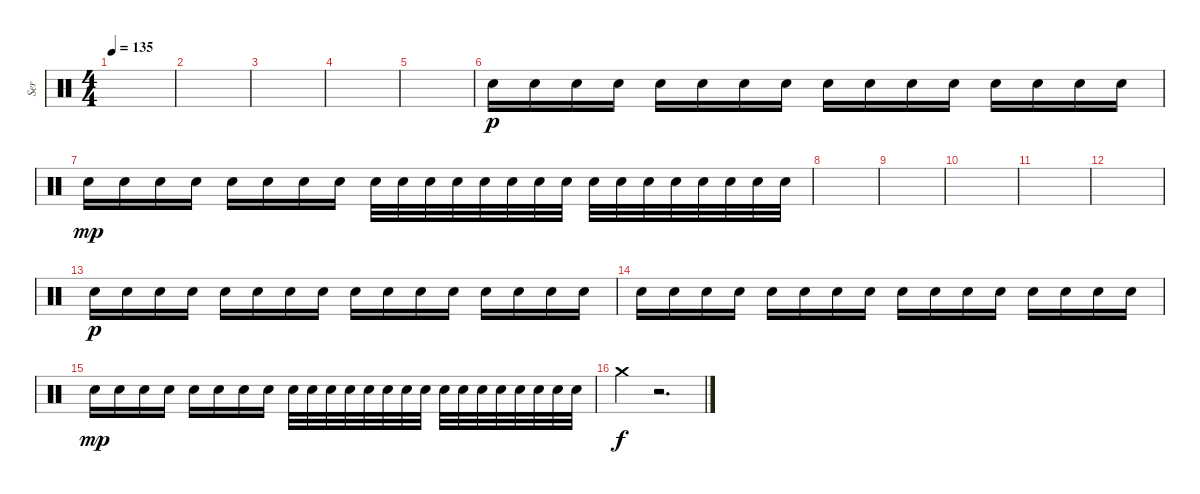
\track ("Ser" "Ser") {instrument percussion}
\staff {score}
\articulation defaults
\ts (4 4)
\tempo 135
\clef neutral
\ks c
|
|
|
|
|
"Electric Snare (hit)".16{dy p} "Electric Snare (hit)".16 "Electric Snare (hit)".16 "Electric Snare (hit)".16 "Electric Snare (hit)".16 "Electric Snare (hit)".16 "Electric Snare (hit)".16 "Electric Snare (hit)".16 "Electric Snare (hit)".16 "Electric Snare (hit)".16 "Electric Snare (hit)".16 "Electric Snare (hit)".16 "Electric Snare (hit)".16 "Electric Snare (hit)".16 "Electric Snare (hit)".16 "Electric Snare (hit)".16 |
"Electric Snare (hit)".16{dy mp} "Electric Snare (hit)".16 "Electric Snare (hit)".16 "Electric Snare (hit)".16 "Electric Snare (hit)".16 "Electric Snare (hit)".16 "Electric Snare (hit)".16 "Electric Snare (hit)".16 "Electric Snare (hit)".32 "Electric Snare (hit)".32 "Electric Snare (hit)".32 "Electric Snare (hit)".32 "Electric Snare (hit)".32 "Electric Snare (hit)".32 "Electric Snare (hit)".32 "Electric Snare (hit)".32 "Electric Snare (hit)".32 "Electric Snare (hit)".32 "Electric Snare (hit)".32 "Electric Snare (hit)".32 "Electric Snare (hit)".32 "Electric Snare (hit)".32 "Electric Snare (hit)".32 "Electric Snare (hit)".32 |
|
|
|
|
|
"Electric Snare (hit)".16{dy p} "Electric Snare (hit)".16 "Electric Snare (hit)".16 "Electric Snare (hit)".16 "Electric Snare (hit)".16 "Electric Snare (hit)".16 "Electric Snare (hit)".16 "Electric Snare (hit)".16 "Electric Snare (hit)".16 "Electric Snare (hit)".16 "Electric Snare (hit)".16 "Electric Snare (hit)".16 "Electric Snare (hit)".16 "Electric Snare (hit)".16 "Electric Snare (hit)".16 "Electric Snare (hit)".16 |
"Electric Snare (hit)".16 "Electric Snare (hit)".16 "Electric Snare (hit)".16 "Electric Snare (hit)".16 "Electric Snare (hit)".16 "Electric Snare (hit)".16 "Electric Snare (hit)".16 "Electric Snare (hit)".16 "Electric Snare (hit)".16 "Electric Snare (hit)".16 "Electric Snare (hit)".16 "Electric Snare (hit)".16 "Electric Snare (hit)".16 "Electric Snare (hit)".16 "Electric Snare (hit)".16 "Electric Snare (hit)".16 |
"Electric Snare (hit)".16{dy mp} "Electric Snare (hit)".16 "Electric Snare (hit)".16 "Electric Snare (hit)".16 "Electric Snare (hit)".16 "Electric Snare (hit)".16 "Electric Snare (hit)".16 "Electric Snare (hit)".16 "Electric Snare (hit)".32 "Electric Snare (hit)".32 "Electric Snare (hit)".32 "Electric Snare (hit)".32 "Electric Snare (hit)".32 "Electric Snare (hit)".32 "Electric Snare (hit)".32 "Electric Snare (hit)".32 "Electric Snare (hit)".32 "Electric Snare (hit)".32 "Electric Snare (hit)".32 "Electric Snare (hit)".32 "Electric Snare (hit)".32 "Electric Snare (hit)".32 "Electric Snare (hit)".32 "Electric Snare (hit)".32 |
"Crash medium (hit)".4{dy f} r.2{d}
